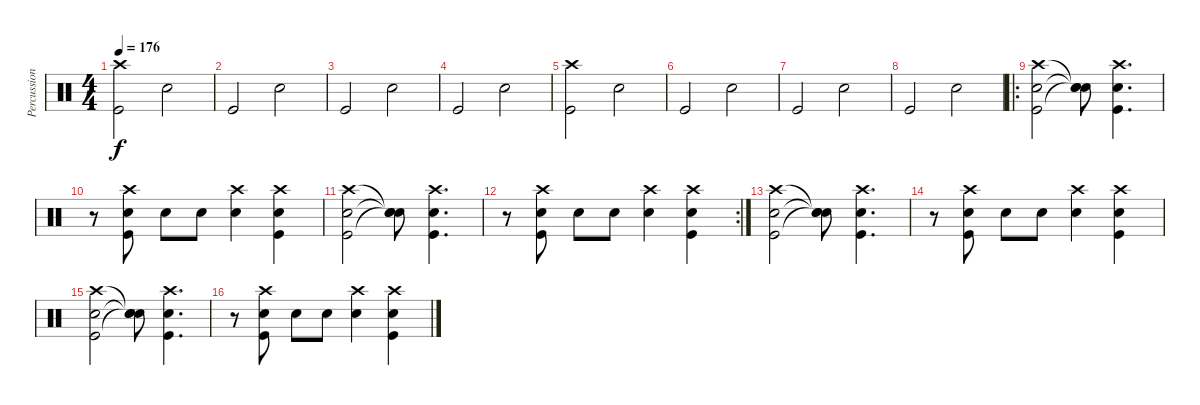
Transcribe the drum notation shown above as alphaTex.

\track ("Percussions" "Percussion") {instrument percussion}
\staff {score}
\articulation defaults
\ts (4 4)
\tempo 176
\clef neutral
\ks c
("Crash high (hit)" "Kick (hit)").2{dy f} "Snare (hit) 2".2 |
"Kick (hit)".2 "Snare (hit) 2".2 |
"Kick (hit)".2 "Snare (hit) 2".2 |
"Kick (hit)".2 "Snare (hit) 2".2 |
("Crash high (hit)" "Kick (hit)").2 "Snare (hit) 2".2 |
"Kick (hit)".2 "Snare (hit) 2".2 |
"Kick (hit)".2 "Snare (hit) 2".2 |
"Kick (hit)".2 "Snare (hit) 2".2 |
\ro
("Crash high (hit)" "Snare (hit) 2" "Kick (hit)").2 ("Snare (hit)"{t} "Snare (hit)"{t} "Snare (hit)"{t}).8 ("Crash high (hit)" "Snare (hit) 2" "Kick (hit)").4{d} |
r.8 ("Crash high (hit)" "Snare (hit) 2" "Kick (hit)").8 "Snare (hit) 2".8 "Snare (hit) 2".8 ("Crash high (hit)" "Snare (hit) 2").4 ("Crash high (hit)" "Snare (hit) 2" "Kick (hit)").4 |
("Crash high (hit)" "Snare (hit) 2" "Kick (hit)").2 ("Snare (hit)"{t} "Snare (hit)"{t} "Snare (hit)"{t}).8 ("Crash high (hit)" "Snare (hit) 2" "Kick (hit)").4{d} |
\rc 2
r.8 ("Crash high (hit)" "Snare (hit) 2" "Kick (hit)").8 "Snare (hit) 2".8 "Snare (hit) 2".8 ("Crash high (hit)" "Snare (hit) 2").4 ("Crash high (hit)" "Snare (hit) 2" "Kick (hit)").4 |
("Crash high (hit)" "Snare (hit) 2" "Kick (hit)").2 ("Snare (hit)"{t} "Snare (hit)"{t} "Snare (hit)"{t}).8 ("Crash high (hit)" "Snare (hit) 2" "Kick (hit)").4{d} |
r.8 ("Crash high (hit)" "Snare (hit) 2" "Kick (hit)").8 "Snare (hit) 2".8 "Snare (hit) 2".8 ("Crash high (hit)" "Snare (hit) 2").4 ("Crash high (hit)" "Snare (hit) 2" "Kick (hit)").4 |
("Crash high (hit)" "Snare (hit) 2" "Kick (hit)").2 ("Snare (hit)"{t} "Snare (hit)"{t} "Snare (hit)"{t}).8 ("Crash high (hit)" "Snare (hit) 2" "Kick (hit)").4{d} |
r.8 ("Crash high (hit)" "Snare (hit) 2" "Kick (hit)").8 "Snare (hit) 2".8 "Snare (hit) 2".8 ("Crash high (hit)" "Snare (hit) 2").4 ("Crash high (hit)" "Snare (hit) 2" "Kick (hit)").4
